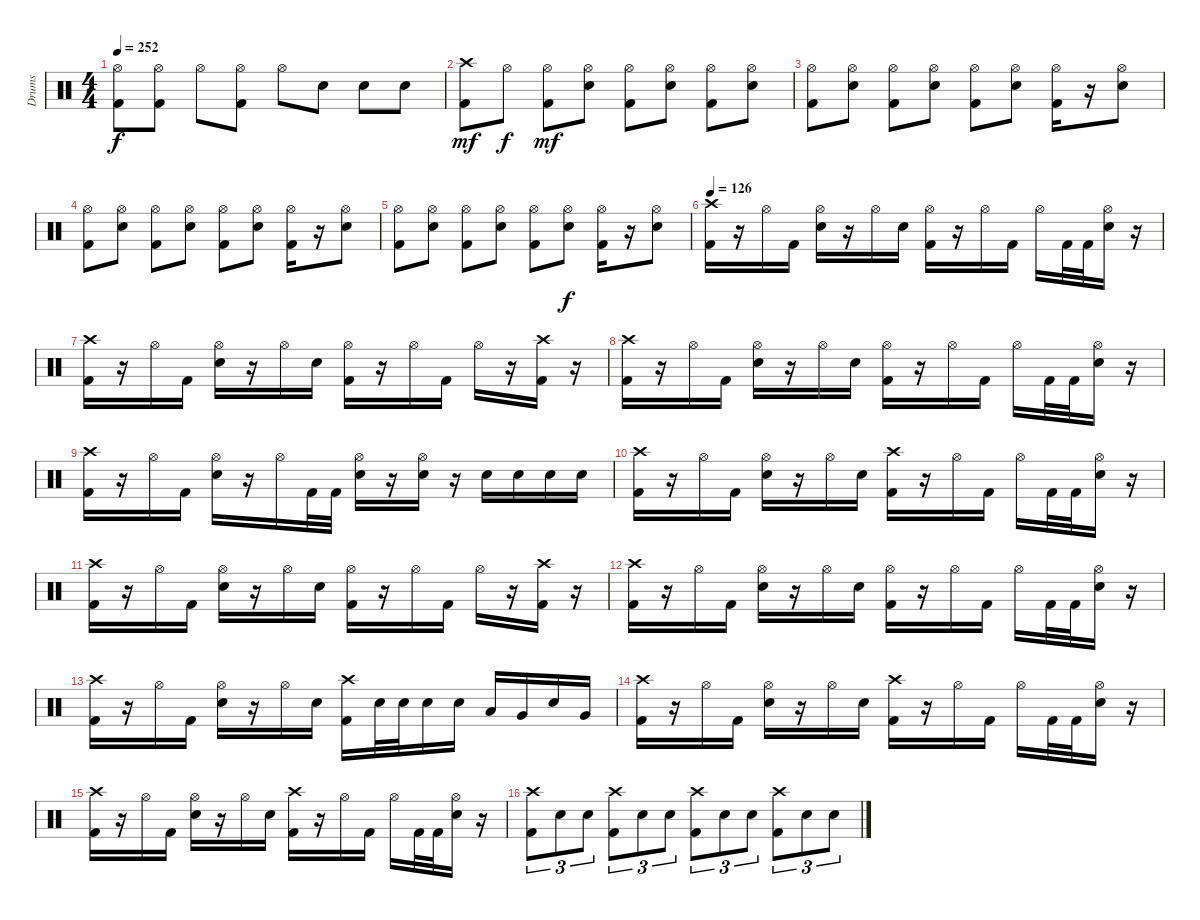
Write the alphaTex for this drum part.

\track ("Drums" "Drums") {instrument percussion}
\staff {score}
\articulation defaults
\ts (4 4)
\tempo 252
\clef neutral
\ks c
("Hi-Hat (open)" "Kick (hit) 2").8{dy f} ("Hi-Hat (open)" "Kick (hit) 2").8 "Hi-Hat (open)".8 ("Hi-Hat (open)" "Kick (hit) 2").8 "Hi-Hat (open)".8 "Snare (hit) 2".8 "Snare (hit) 2".8 "Snare (hit) 2".8 |
("Crash high (hit)" "Kick (hit) 2").8{dy mf} "Hi-Hat (open)".8{dy f} ("Hi-Hat (open)" "Kick (hit) 2").8{dy mf} ("Hi-Hat (open)" "Snare (hit) 2").8 ("Hi-Hat (open)" "Kick (hit) 2").8 ("Hi-Hat (open)" "Snare (hit) 2").8 ("Hi-Hat (open)" "Kick (hit) 2").8 ("Hi-Hat (open)" "Snare (hit) 2").8 |
("Hi-Hat (open)" "Kick (hit) 2").8 ("Hi-Hat (open)" "Snare (hit) 2").8 ("Hi-Hat (open)" "Kick (hit) 2").8 ("Hi-Hat (open)" "Snare (hit) 2").8 ("Hi-Hat (open)" "Kick (hit) 2").8 ("Hi-Hat (open)" "Snare (hit) 2").8 ("Hi-Hat (open)" "Kick (hit) 2").16 r.16 ("Hi-Hat (open)" "Snare (hit) 2").8 |
("Hi-Hat (open)" "Kick (hit) 2").8 ("Hi-Hat (open)" "Snare (hit) 2").8 ("Hi-Hat (open)" "Kick (hit) 2").8 ("Hi-Hat (open)" "Snare (hit) 2").8 ("Hi-Hat (open)" "Kick (hit) 2").8 ("Hi-Hat (open)" "Snare (hit) 2").8 ("Hi-Hat (open)" "Kick (hit) 2").16 r.16 ("Hi-Hat (open)" "Snare (hit) 2").8 |
("Hi-Hat (open)" "Kick (hit) 2").8 ("Hi-Hat (open)" "Snare (hit) 2").8 ("Hi-Hat (open)" "Kick (hit) 2").8 ("Hi-Hat (open)" "Snare (hit) 2").8 ("Hi-Hat (open)" "Kick (hit) 2").8 ("Hi-Hat (open)" "Snare (hit) 2").8{dy f} ("Hi-Hat (open)" "Kick (hit) 2").16 r.16 ("Hi-Hat (open)" "Snare (hit) 2").8 |
\tempo 126
("Crash high (hit)" "Kick (hit) 2").16 r.16 "Hi-Hat (open)".16 "Kick (hit) 2".16 ("Hi-Hat (open)" "Snare (hit) 2").16 r.16 "Hi-Hat (open)".16 "Snare (hit) 2".16 ("Hi-Hat (open)" "Kick (hit) 2").16 r.16 "Hi-Hat (open)".16 "Kick (hit) 2".16 "Hi-Hat (open)".16 "Kick (hit) 2".32 "Kick (hit) 2".32 ("Hi-Hat (open)" "Snare (hit) 2").16 r.16 |
("Crash high (hit)" "Kick (hit) 2").16 r.16 "Hi-Hat (open)".16 "Kick (hit) 2".16 ("Hi-Hat (open)" "Snare (hit) 2").16 r.16 "Hi-Hat (open)".16 "Snare (hit) 2".16 ("Hi-Hat (open)" "Kick (hit) 2").16 r.16 "Hi-Hat (open)".16 "Kick (hit) 2".16 "Hi-Hat (open)".16 r.16 ("Crash high (hit)" "Kick (hit) 2").16 r.16 |
("Crash high (hit)" "Kick (hit) 2").16 r.16 "Hi-Hat (open)".16 "Kick (hit) 2".16 ("Hi-Hat (open)" "Snare (hit) 2").16 r.16 "Hi-Hat (open)".16 "Snare (hit) 2".16 ("Hi-Hat (open)" "Kick (hit) 2").16 r.16 "Hi-Hat (open)".16 "Kick (hit) 2".16 "Hi-Hat (open)".16 "Kick (hit) 2".32 "Kick (hit) 2".32 ("Hi-Hat (open)" "Snare (hit) 2").16 r.16 |
("Crash high (hit)" "Kick (hit) 2").16 r.16 "Hi-Hat (open)".16 "Kick (hit) 2".16 ("Hi-Hat (open)" "Snare (hit) 2").16 r.16 "Hi-Hat (open)".16 "Kick (hit) 2".32 "Kick (hit) 2".32 ("Hi-Hat (open)" "Snare (hit) 2").16 r.16 ("Hi-Hat (open)" "Snare (hit) 2").16 r.16 "Snare (hit) 2".16 "Snare (hit) 2".16 "Snare (hit) 2".16 "Snare (hit) 2".16 |
("Crash high (hit)" "Kick (hit) 2").16 r.16 "Hi-Hat (open)".16 "Kick (hit) 2".16 ("Hi-Hat (open)" "Snare (hit) 2").16 r.16 "Hi-Hat (open)".16 "Snare (hit) 2".16 ("Crash high (hit)" "Kick (hit) 2").16 r.16 "Hi-Hat (open)".16 "Kick (hit) 2".16 "Hi-Hat (open)".16 "Kick (hit) 2".32 "Kick (hit) 2".32 ("Hi-Hat (open)" "Snare (hit) 2").16 r.16 |
("Crash high (hit)" "Kick (hit) 2").16 r.16 "Hi-Hat (open)".16 "Kick (hit) 2".16 ("Hi-Hat (open)" "Snare (hit) 2").16 r.16 "Hi-Hat (open)".16 "Snare (hit) 2".16 ("Hi-Hat (open)" "Kick (hit) 2").16 r.16 "Hi-Hat (open)".16 "Kick (hit) 2".16 "Hi-Hat (open)".16 r.16 ("Crash high (hit)" "Kick (hit) 2").16 r.16 |
("Crash high (hit)" "Kick (hit) 2").16 r.16 "Hi-Hat (open)".16 "Kick (hit) 2".16 ("Hi-Hat (open)" "Snare (hit) 2").16 r.16 "Hi-Hat (open)".16 "Snare (hit) 2".16 ("Hi-Hat (open)" "Kick (hit) 2").16 r.16 "Hi-Hat (open)".16 "Kick (hit) 2".16 "Hi-Hat (open)".16 "Kick (hit) 2".32 "Kick (hit) 2".32 ("Hi-Hat (open)" "Snare (hit) 2").16 r.16 |
("Crash high (hit)" "Kick (hit) 2").16 r.16 "Hi-Hat (open)".16 "Kick (hit) 2".16 ("Hi-Hat (open)" "Snare (hit) 2").16 r.16 "Hi-Hat (open)".16 "Snare (hit) 2".16 ("Crash high (hit)" "Kick (hit) 2").16 "Snare (hit) 2".32 "Snare (hit) 2".32 "Snare (hit) 2".16 "Snare (hit) 2".16 "Low Tom (hit)".16 "Very Low Tom (hit)".16 "Snare (hit) 2".16 "Very Low Tom (hit)".16 |
("Crash high (hit)" "Kick (hit) 2").16 r.16 "Hi-Hat (open)".16 "Kick (hit) 2".16 ("Hi-Hat (open)" "Snare (hit) 2").16 r.16 "Hi-Hat (open)".16 "Snare (hit) 2".16 ("Crash high (hit)" "Kick (hit) 2").16 r.16 "Hi-Hat (open)".16 "Kick (hit) 2".16 "Hi-Hat (open)".16 "Kick (hit) 2".32 "Kick (hit) 2".32 ("Hi-Hat (open)" "Snare (hit) 2").16 r.16 |
("Crash high (hit)" "Kick (hit) 2").16 r.16 "Hi-Hat (open)".16 "Kick (hit) 2".16 ("Hi-Hat (open)" "Snare (hit) 2").16 r.16 "Hi-Hat (open)".16 "Snare (hit) 2".16 ("Crash high (hit)" "Kick (hit) 2").16 r.16 "Hi-Hat (open)".16 "Kick (hit) 2".16 "Hi-Hat (open)".16 "Kick (hit) 2".32 "Kick (hit) 2".32 ("Hi-Hat (open)" "Snare (hit) 2").16 r.16 |
("Crash high (hit)" "Kick (hit) 2").8{tu (3 2)} "Snare (hit) 2".8{tu (3 2)} "Snare (hit) 2".8{tu (3 2)} ("Crash high (hit)" "Kick (hit) 2").8{tu (3 2)} "Snare (hit) 2".8{tu (3 2)} "Snare (hit) 2".8{tu (3 2)} ("Crash high (hit)" "Kick (hit) 2").8{tu (3 2)} "Snare (hit) 2".8{tu (3 2)} "Snare (hit) 2".8{tu (3 2)} ("Crash high (hit)" "Kick (hit) 2").8{tu (3 2)} "Snare (hit) 2".8{tu (3 2)} "Snare (hit) 2".8{tu (3 2)}
